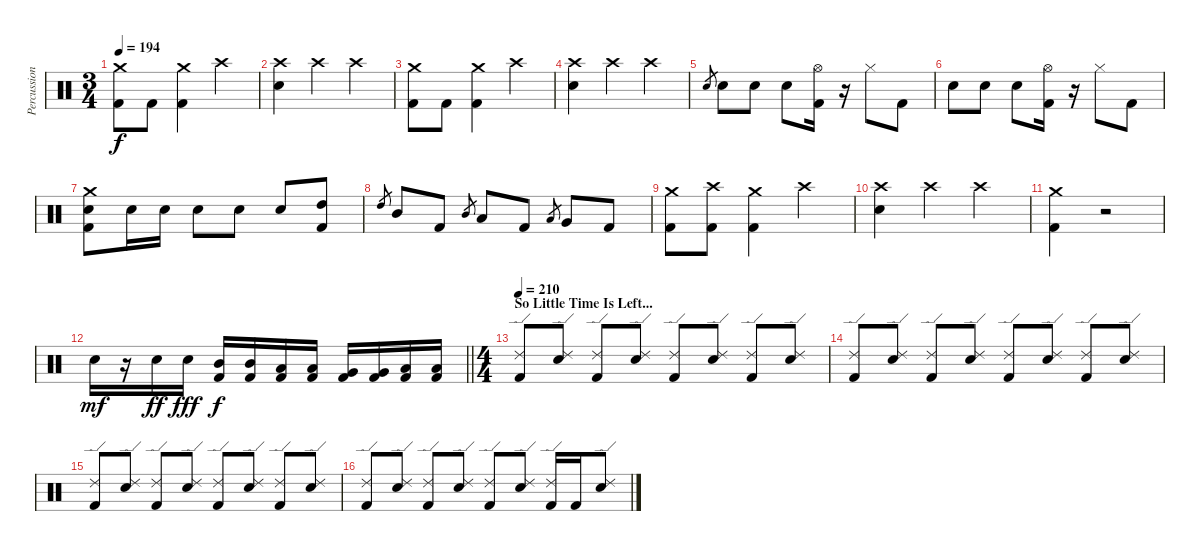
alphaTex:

\track ("Percussion" "Percussion") {instrument percussion}
\staff {score}
\articulation defaults
\ts (3 4)
\tempo 194
\clef neutral
\ks c
("Crash medium (hit)" "Kick (hit) 2").8{dy f} "Kick (hit) 2".8 ("Crash medium (hit)" "Kick (hit) 2").4 "Crash high (hit)".4 |
("Crash high (hit)" "Electric Snare (hit)").4 "Crash high (hit)".4 "Crash high (hit)".4 |
("Crash medium (hit)" "Kick (hit) 2").8 "Kick (hit) 2".8 ("Crash medium (hit)" "Kick (hit) 2").4 "Crash high (hit)".4 |
("Crash high (hit)" "Electric Snare (hit)").4 "Crash high (hit)".4 "Crash high (hit)".4 |
"Electric Snare (hit)".8{gr} "Electric Snare (hit)".8 "Electric Snare (hit)".8 "Electric Snare (hit)".8 ("Hi-Hat (open)" "Kick (hit) 2").16 r.16 "Hi-Hat (closed)".8 "Kick (hit) 2".8 |
"Electric Snare (hit)".8 "Electric Snare (hit)".8 "Electric Snare (hit)".8 ("Hi-Hat (open)" "Kick (hit) 2").16 r.16 "Hi-Hat (closed)".8 "Kick (hit) 2".8 |
("Crash medium (hit)" "Electric Snare (hit)" "Kick (hit) 2").8{volume 13} "Electric Snare (hit)".16 "Electric Snare (hit)".16 "Electric Snare (hit)".8 "Electric Snare (hit)".8 "Electric Snare (hit)".8 ("High Tom (hit)" "Kick (hit) 2").8 |
"High Tom (hit)".8{gr} "Mid Tom (hit)".8 "Kick (hit) 2".8 "Mid Tom (hit)".8{gr} "Low Tom (hit)".8 "Kick (hit) 2".8 "Low Tom (hit)".8{gr} "Very Low Tom (hit)".8 "Kick (hit) 2".8 |
("Crash medium (hit)" "Kick (hit) 2").8 ("Crash high (hit)" "Kick (hit) 2").8 ("Crash medium (hit)" "Kick (hit) 2").4 "Crash high (hit)".4 |
("Crash high (hit)" "Electric Snare (hit)").4 "Crash high (hit)".4 "Crash high (hit)".4 |
("Crash medium (hit)" "Kick (hit) 2").4 r.2{volume 0} |
\barLineRight lightlight "Electric Snare (hit)".16{dy mf volume 13}
r.16 "Electric Snare (hit)".16{dy ff} "Electric Snare (hit)".16{dy fff} ("Mid Tom (hit)" "Kick (hit) 2").16{dy f} ("Mid Tom (hit)" "Kick (hit) 2").16 ("Low Tom (hit)" "Kick (hit) 2").16 ("Low Tom (hit)" "Kick (hit) 2").16 ("Very Low Tom (hit)" "Kick (hit) 2").16 ("Very Low Tom (hit)" "Kick (hit) 2").16 ("Low Floor Tom (hit)" "Kick (hit) 2").16 ("Low Floor Tom (hit)" "Kick (hit) 2").16 |
\ts (4 4)
\section ("" "So Little Time Is Left...")
\tempo 210
("Ride (edge) 2" "Kick (hit) 2").8 ("Ride (edge) 2" "Electric Snare (hit)").8 ("Ride (edge) 2" "Kick (hit) 2").8 ("Ride (edge) 2" "Electric Snare (hit)").8 ("Ride (edge) 2" "Kick (hit) 2").8 ("Ride (edge) 2" "Electric Snare (hit)").8 ("Ride (edge) 2" "Kick (hit) 2").8 ("Ride (edge) 2" "Electric Snare (hit)").8 |
("Ride (edge) 2" "Kick (hit) 2").8 ("Ride (edge) 2" "Electric Snare (hit)").8 ("Ride (edge) 2" "Kick (hit) 2").8 ("Ride (edge) 2" "Electric Snare (hit)").8 ("Ride (edge) 2" "Kick (hit) 2").8 ("Ride (edge) 2" "Electric Snare (hit)").8 ("Ride (edge) 2" "Kick (hit) 2").8 ("Ride (edge) 2" "Electric Snare (hit)").8 |
("Ride (edge) 2" "Kick (hit) 2").8 ("Ride (edge) 2" "Electric Snare (hit)").8 ("Ride (edge) 2" "Kick (hit) 2").8 ("Ride (edge) 2" "Electric Snare (hit)").8 ("Ride (edge) 2" "Kick (hit) 2").8 ("Ride (edge) 2" "Electric Snare (hit)").8 ("Ride (edge) 2" "Kick (hit) 2").8 ("Ride (edge) 2" "Electric Snare (hit)").8 |
("Ride (edge) 2" "Kick (hit) 2").8 ("Ride (edge) 2" "Electric Snare (hit)").8 ("Ride (edge) 2" "Kick (hit) 2").8 ("Ride (edge) 2" "Electric Snare (hit)").8 ("Ride (edge) 2" "Kick (hit) 2").8 ("Ride (edge) 2" "Electric Snare (hit)").8 ("Ride (edge) 2" "Kick (hit) 2").16 "Kick (hit) 2".16 ("Ride (edge) 2" "Electric Snare (hit)").8
